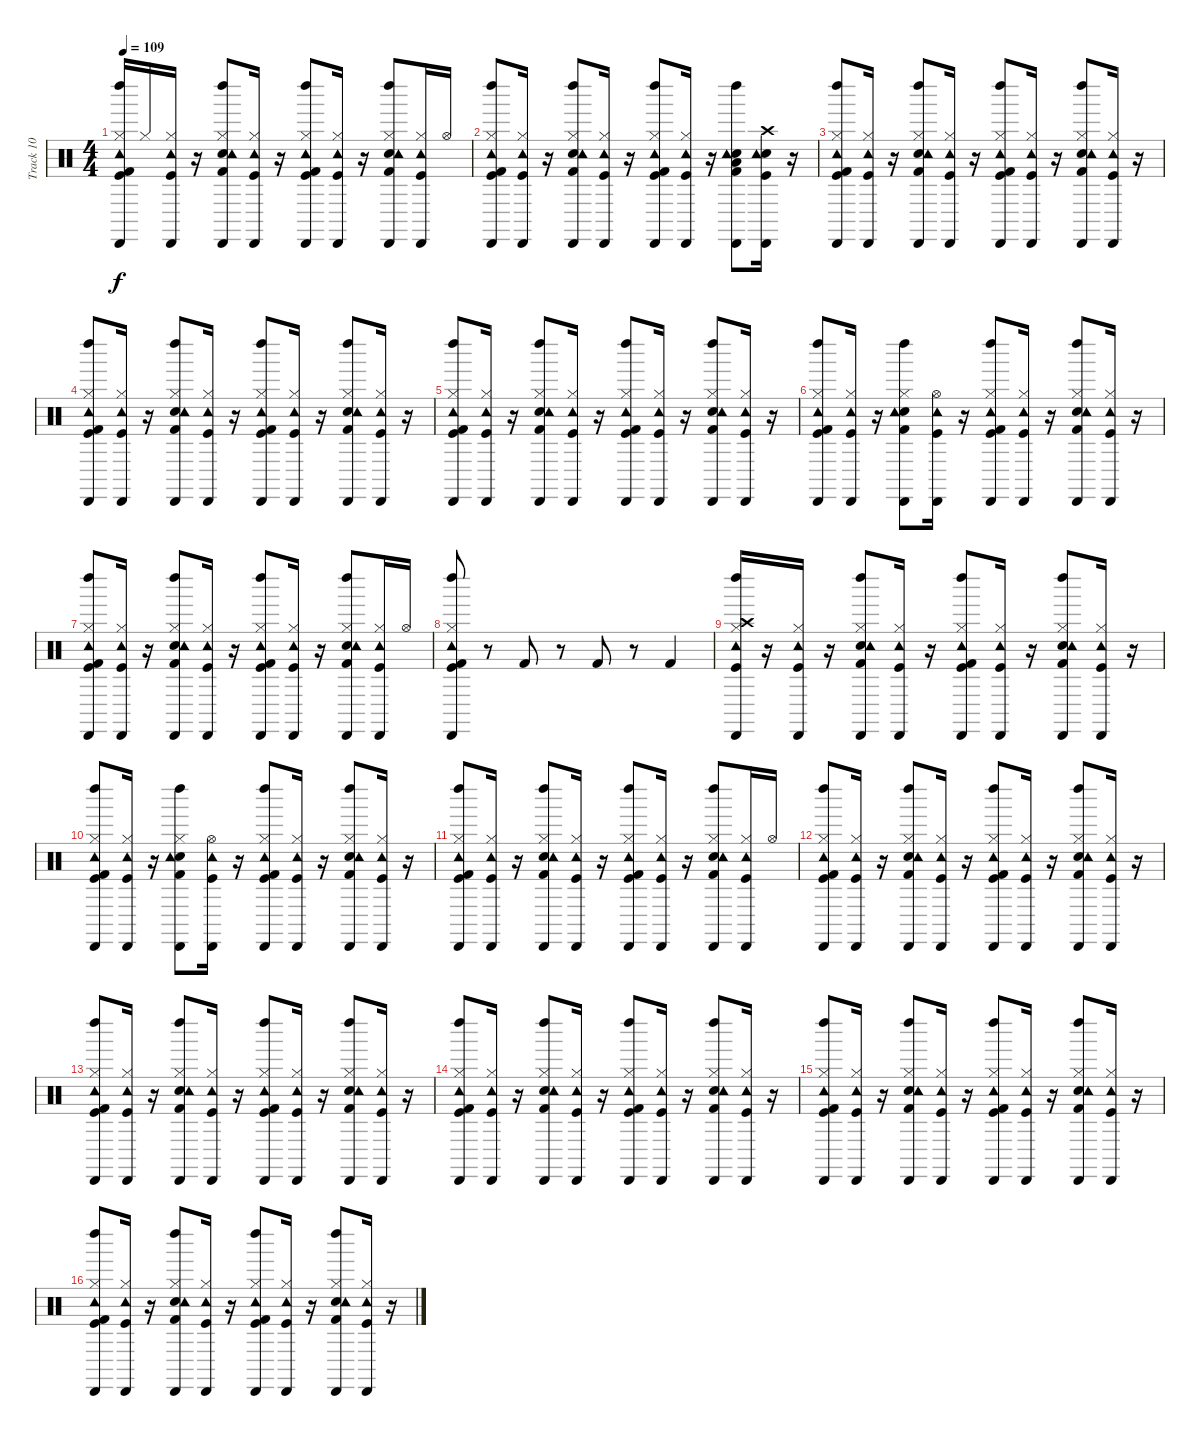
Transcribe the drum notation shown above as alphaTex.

\track ("Track 10" "Track 10") {instrument percussion}
\staff {score}
\articulation defaults
\ts (4 4)
\tempo 109
\clef neutral
\ks c
("Kick (hit)" "Hi-Hat (closed)" "Tambourine (hit)" "Left Maraca (hit)" "Cabasa (hit)" "Kick (hit) 2").16{dy f} "Hi-Hat (closed)".16 ("Kick (hit)" "Hi-Hat (closed)" "Tambourine (hit)" "Cabasa (hit)").16 r.16 ("Snare (hit) 2" "Hi-Hat (closed)" "Tambourine (hit)" "Left Maraca (hit)" "Cabasa (hit)" "Kick (hit) 2").8 ("Kick (hit)" "Hi-Hat (closed)" "Tambourine (hit)" "Cabasa (hit)").16 r.16 ("Kick (hit)" "Hi-Hat (closed)" "Tambourine (hit)" "Left Maraca (hit)" "Cabasa (hit)" "Kick (hit) 2").8 ("Kick (hit)" "Hi-Hat (closed)" "Tambourine (hit)" "Cabasa (hit)").16 r.16 ("Snare (hit) 2" "Hi-Hat (closed)" "Tambourine (hit)" "Left Maraca (hit)" "Cabasa (hit)" "Kick (hit) 2").8 ("Kick (hit)" "Hi-Hat (closed)" "Tambourine (hit)" "Cabasa (hit)").16 "Hi-Hat (open)".16 |
("Kick (hit)" "Hi-Hat (closed)" "Tambourine (hit)" "Left Maraca (hit)" "Cabasa (hit)" "Kick (hit) 2").8 ("Kick (hit)" "Hi-Hat (closed)" "Tambourine (hit)" "Cabasa (hit)").16 r.16 ("Snare (hit) 2" "Hi-Hat (closed)" "Tambourine (hit)" "Left Maraca (hit)" "Cabasa (hit)" "Kick (hit) 2").8 ("Kick (hit)" "Hi-Hat (closed)" "Tambourine (hit)" "Cabasa (hit)").16 r.16 ("Kick (hit)" "Hi-Hat (closed)" "Tambourine (hit)" "Left Maraca (hit)" "Cabasa (hit)" "Kick (hit) 2").8 ("Kick (hit)" "Hi-Hat (closed)" "Tambourine (hit)" "Cabasa (hit)").16 r.16 ("Snare (hit) 2" "Low Floor Tom (hit)" "Tambourine (hit)" "Left Maraca (hit)" "Cabasa (hit)" "Kick (hit) 2").8 ("Kick (hit)" "Snare (hit) 2" "Crash high (hit)" "Tambourine (hit)" "Cabasa (hit)").16 r.16 |
("Kick (hit)" "Hi-Hat (closed)" "Tambourine (hit)" "Left Maraca (hit)" "Cabasa (hit)" "Kick (hit) 2").8 ("Kick (hit)" "Hi-Hat (closed)" "Tambourine (hit)" "Cabasa (hit)").16 r.16 ("Snare (hit) 2" "Hi-Hat (closed)" "Tambourine (hit)" "Left Maraca (hit)" "Cabasa (hit)" "Kick (hit) 2").8 ("Kick (hit)" "Hi-Hat (closed)" "Tambourine (hit)" "Cabasa (hit)").16 r.16 ("Kick (hit)" "Hi-Hat (closed)" "Tambourine (hit)" "Left Maraca (hit)" "Cabasa (hit)" "Kick (hit) 2").8 ("Kick (hit)" "Hi-Hat (closed)" "Tambourine (hit)" "Cabasa (hit)").16 r.16 ("Snare (hit) 2" "Hi-Hat (closed)" "Tambourine (hit)" "Left Maraca (hit)" "Cabasa (hit)" "Kick (hit) 2").8 ("Kick (hit)" "Hi-Hat (closed)" "Tambourine (hit)" "Cabasa (hit)").16 r.16 |
("Kick (hit)" "Hi-Hat (closed)" "Tambourine (hit)" "Left Maraca (hit)" "Cabasa (hit)" "Kick (hit) 2").8 ("Kick (hit)" "Hi-Hat (closed)" "Tambourine (hit)" "Cabasa (hit)").16 r.16 ("Snare (hit) 2" "Hi-Hat (closed)" "Tambourine (hit)" "Left Maraca (hit)" "Cabasa (hit)" "Kick (hit) 2").8 ("Kick (hit)" "Hi-Hat (closed)" "Tambourine (hit)" "Cabasa (hit)").16 r.16 ("Kick (hit)" "Hi-Hat (closed)" "Tambourine (hit)" "Left Maraca (hit)" "Cabasa (hit)" "Kick (hit) 2").8 ("Kick (hit)" "Hi-Hat (closed)" "Tambourine (hit)" "Cabasa (hit)").16 r.16 ("Snare (hit) 2" "Hi-Hat (closed)" "Tambourine (hit)" "Left Maraca (hit)" "Cabasa (hit)" "Kick (hit) 2").8 ("Kick (hit)" "Hi-Hat (closed)" "Tambourine (hit)" "Cabasa (hit)").16 r.16 |
("Kick (hit)" "Hi-Hat (closed)" "Tambourine (hit)" "Left Maraca (hit)" "Cabasa (hit)" "Kick (hit) 2").8 ("Kick (hit)" "Hi-Hat (closed)" "Tambourine (hit)" "Cabasa (hit)").16 r.16 ("Snare (hit) 2" "Hi-Hat (closed)" "Tambourine (hit)" "Left Maraca (hit)" "Cabasa (hit)" "Kick (hit) 2").8 ("Kick (hit)" "Hi-Hat (closed)" "Tambourine (hit)" "Cabasa (hit)").16 r.16 ("Kick (hit)" "Hi-Hat (closed)" "Tambourine (hit)" "Left Maraca (hit)" "Cabasa (hit)" "Kick (hit) 2").8 ("Kick (hit)" "Hi-Hat (closed)" "Tambourine (hit)" "Cabasa (hit)").16 r.16 ("Snare (hit) 2" "Hi-Hat (closed)" "Tambourine (hit)" "Left Maraca (hit)" "Cabasa (hit)" "Kick (hit) 2").8 ("Kick (hit)" "Hi-Hat (closed)" "Tambourine (hit)" "Cabasa (hit)").16 r.16 |
("Kick (hit)" "Hi-Hat (closed)" "Tambourine (hit)" "Left Maraca (hit)" "Cabasa (hit)" "Kick (hit) 2").8 ("Kick (hit)" "Hi-Hat (closed)" "Tambourine (hit)" "Cabasa (hit)").16 r.16 ("Snare (hit) 2" "Hi-Hat (closed)" "Tambourine (hit)" "Left Maraca (hit)" "Cabasa (hit)" "Kick (hit) 2").8 ("Kick (hit)" "Hi-Hat (open)" "Tambourine (hit)" "Cabasa (hit)").16 r.16 ("Kick (hit)" "Hi-Hat (closed)" "Tambourine (hit)" "Left Maraca (hit)" "Cabasa (hit)" "Kick (hit) 2").8 ("Kick (hit)" "Hi-Hat (closed)" "Tambourine (hit)" "Cabasa (hit)").16 r.16 ("Snare (hit) 2" "Hi-Hat (closed)" "Tambourine (hit)" "Left Maraca (hit)" "Cabasa (hit)" "Kick (hit) 2").8 ("Kick (hit)" "Hi-Hat (closed)" "Tambourine (hit)" "Cabasa (hit)").16 r.16 |
("Kick (hit)" "Hi-Hat (closed)" "Tambourine (hit)" "Left Maraca (hit)" "Cabasa (hit)" "Kick (hit) 2").8 ("Kick (hit)" "Hi-Hat (closed)" "Tambourine (hit)" "Cabasa (hit)").16 r.16 ("Snare (hit) 2" "Hi-Hat (closed)" "Tambourine (hit)" "Left Maraca (hit)" "Cabasa (hit)" "Kick (hit) 2").8 ("Kick (hit)" "Hi-Hat (closed)" "Tambourine (hit)" "Cabasa (hit)").16 r.16 ("Kick (hit)" "Hi-Hat (closed)" "Tambourine (hit)" "Left Maraca (hit)" "Cabasa (hit)" "Kick (hit) 2").8 ("Kick (hit)" "Hi-Hat (closed)" "Tambourine (hit)" "Cabasa (hit)").16 r.16 ("Snare (hit) 2" "Hi-Hat (closed)" "Tambourine (hit)" "Left Maraca (hit)" "Cabasa (hit)" "Kick (hit) 2").8 ("Kick (hit)" "Hi-Hat (closed)" "Tambourine (hit)" "Cabasa (hit)").16 "Hi-Hat (open)".16 |
("Kick (hit)" "Hi-Hat (closed)" "Tambourine (hit)" "Left Maraca (hit)" "Cabasa (hit)" "Kick (hit) 2").8 r.8 "Kick (hit) 2".8 r.8 "Kick (hit) 2".8 r.8 "Kick (hit) 2".4 |
("Kick (hit)" "Hi-Hat (closed)" "Crash high (hit)" "Tambourine (hit)" "Left Maraca (hit)" "Cabasa (hit)").16 r.16 ("Kick (hit)" "Hi-Hat (closed)" "Tambourine (hit)" "Cabasa (hit)").16 r.16 ("Snare (hit) 2" "Hi-Hat (closed)" "Tambourine (hit)" "Left Maraca (hit)" "Cabasa (hit)" "Kick (hit) 2").8 ("Kick (hit)" "Hi-Hat (closed)" "Tambourine (hit)" "Cabasa (hit)").16 r.16 ("Kick (hit)" "Hi-Hat (closed)" "Tambourine (hit)" "Left Maraca (hit)" "Cabasa (hit)" "Kick (hit) 2").8 ("Kick (hit)" "Hi-Hat (closed)" "Tambourine (hit)" "Cabasa (hit)").16 r.16 ("Snare (hit) 2" "Hi-Hat (closed)" "Tambourine (hit)" "Left Maraca (hit)" "Cabasa (hit)" "Kick (hit) 2").8 ("Kick (hit)" "Hi-Hat (closed)" "Tambourine (hit)" "Cabasa (hit)").16 r.16 |
("Kick (hit)" "Hi-Hat (closed)" "Tambourine (hit)" "Left Maraca (hit)" "Cabasa (hit)" "Kick (hit) 2").8 ("Kick (hit)" "Hi-Hat (closed)" "Tambourine (hit)" "Cabasa (hit)").16 r.16 ("Snare (hit) 2" "Hi-Hat (closed)" "Tambourine (hit)" "Left Maraca (hit)" "Cabasa (hit)" "Kick (hit) 2").8 ("Kick (hit)" "Hi-Hat (open)" "Tambourine (hit)" "Cabasa (hit)").16 r.16 ("Kick (hit)" "Hi-Hat (closed)" "Tambourine (hit)" "Left Maraca (hit)" "Cabasa (hit)" "Kick (hit) 2").8 ("Kick (hit)" "Hi-Hat (closed)" "Tambourine (hit)" "Cabasa (hit)").16 r.16 ("Snare (hit) 2" "Hi-Hat (closed)" "Tambourine (hit)" "Left Maraca (hit)" "Cabasa (hit)" "Kick (hit) 2").8 ("Kick (hit)" "Hi-Hat (closed)" "Tambourine (hit)" "Cabasa (hit)").16 r.16 |
("Kick (hit)" "Hi-Hat (closed)" "Tambourine (hit)" "Left Maraca (hit)" "Cabasa (hit)" "Kick (hit) 2").8 ("Kick (hit)" "Hi-Hat (closed)" "Tambourine (hit)" "Cabasa (hit)").16 r.16 ("Snare (hit) 2" "Hi-Hat (closed)" "Tambourine (hit)" "Left Maraca (hit)" "Cabasa (hit)" "Kick (hit) 2").8 ("Kick (hit)" "Hi-Hat (closed)" "Tambourine (hit)" "Cabasa (hit)").16 r.16 ("Kick (hit)" "Hi-Hat (closed)" "Tambourine (hit)" "Left Maraca (hit)" "Cabasa (hit)" "Kick (hit) 2").8 ("Kick (hit)" "Hi-Hat (closed)" "Tambourine (hit)" "Cabasa (hit)").16 r.16 ("Snare (hit) 2" "Hi-Hat (closed)" "Tambourine (hit)" "Left Maraca (hit)" "Cabasa (hit)" "Kick (hit) 2").8 ("Kick (hit)" "Hi-Hat (closed)" "Tambourine (hit)" "Cabasa (hit)").16 "Hi-Hat (open)".16 |
("Kick (hit)" "Hi-Hat (closed)" "Tambourine (hit)" "Left Maraca (hit)" "Cabasa (hit)" "Kick (hit) 2").8 ("Kick (hit)" "Hi-Hat (closed)" "Tambourine (hit)" "Cabasa (hit)").16 r.16 ("Snare (hit) 2" "Hi-Hat (closed)" "Tambourine (hit)" "Left Maraca (hit)" "Cabasa (hit)" "Kick (hit) 2").8 ("Kick (hit)" "Hi-Hat (closed)" "Tambourine (hit)" "Cabasa (hit)").16 r.16 ("Kick (hit)" "Hi-Hat (closed)" "Tambourine (hit)" "Left Maraca (hit)" "Cabasa (hit)" "Kick (hit) 2").8 ("Kick (hit)" "Hi-Hat (closed)" "Tambourine (hit)" "Cabasa (hit)").16 r.16 ("Snare (hit) 2" "Hi-Hat (closed)" "Tambourine (hit)" "Left Maraca (hit)" "Cabasa (hit)" "Kick (hit) 2").8 ("Kick (hit)" "Hi-Hat (closed)" "Tambourine (hit)" "Cabasa (hit)").16 r.16 |
("Kick (hit)" "Hi-Hat (closed)" "Tambourine (hit)" "Left Maraca (hit)" "Cabasa (hit)" "Kick (hit) 2").8 ("Kick (hit)" "Hi-Hat (closed)" "Tambourine (hit)" "Cabasa (hit)").16 r.16 ("Snare (hit) 2" "Hi-Hat (closed)" "Tambourine (hit)" "Left Maraca (hit)" "Cabasa (hit)" "Kick (hit) 2").8 ("Kick (hit)" "Hi-Hat (closed)" "Tambourine (hit)" "Cabasa (hit)").16 r.16 ("Kick (hit)" "Hi-Hat (closed)" "Tambourine (hit)" "Left Maraca (hit)" "Cabasa (hit)" "Kick (hit) 2").8 ("Kick (hit)" "Hi-Hat (closed)" "Tambourine (hit)" "Cabasa (hit)").16 r.16 ("Snare (hit) 2" "Hi-Hat (closed)" "Tambourine (hit)" "Left Maraca (hit)" "Cabasa (hit)" "Kick (hit) 2").8 ("Kick (hit)" "Hi-Hat (closed)" "Tambourine (hit)" "Cabasa (hit)").16 r.16 |
("Kick (hit)" "Hi-Hat (closed)" "Tambourine (hit)" "Left Maraca (hit)" "Cabasa (hit)" "Kick (hit) 2").8 ("Kick (hit)" "Hi-Hat (closed)" "Tambourine (hit)" "Cabasa (hit)").16 r.16 ("Snare (hit) 2" "Hi-Hat (closed)" "Tambourine (hit)" "Left Maraca (hit)" "Cabasa (hit)" "Kick (hit) 2").8 ("Kick (hit)" "Hi-Hat (closed)" "Tambourine (hit)" "Cabasa (hit)").16 r.16 ("Kick (hit)" "Hi-Hat (closed)" "Tambourine (hit)" "Left Maraca (hit)" "Cabasa (hit)" "Kick (hit) 2").8 ("Kick (hit)" "Hi-Hat (closed)" "Tambourine (hit)" "Cabasa (hit)").16 r.16 ("Snare (hit) 2" "Hi-Hat (closed)" "Tambourine (hit)" "Left Maraca (hit)" "Cabasa (hit)" "Kick (hit) 2").8 ("Kick (hit)" "Hi-Hat (closed)" "Tambourine (hit)" "Cabasa (hit)").16 r.16 |
("Kick (hit)" "Hi-Hat (closed)" "Tambourine (hit)" "Left Maraca (hit)" "Cabasa (hit)" "Kick (hit) 2").8 ("Kick (hit)" "Hi-Hat (closed)" "Tambourine (hit)" "Cabasa (hit)").16 r.16 ("Snare (hit) 2" "Hi-Hat (closed)" "Tambourine (hit)" "Left Maraca (hit)" "Cabasa (hit)" "Kick (hit) 2").8 ("Kick (hit)" "Hi-Hat (closed)" "Tambourine (hit)" "Cabasa (hit)").16 r.16 ("Kick (hit)" "Hi-Hat (closed)" "Tambourine (hit)" "Left Maraca (hit)" "Cabasa (hit)" "Kick (hit) 2").8 ("Kick (hit)" "Hi-Hat (closed)" "Tambourine (hit)" "Cabasa (hit)").16 r.16 ("Snare (hit) 2" "Hi-Hat (closed)" "Tambourine (hit)" "Left Maraca (hit)" "Cabasa (hit)" "Kick (hit) 2").8 ("Kick (hit)" "Hi-Hat (closed)" "Tambourine (hit)" "Cabasa (hit)").16 r.16 |
("Kick (hit)" "Hi-Hat (closed)" "Tambourine (hit)" "Left Maraca (hit)" "Cabasa (hit)" "Kick (hit) 2").8 ("Kick (hit)" "Hi-Hat (closed)" "Tambourine (hit)" "Cabasa (hit)").16 r.16 ("Snare (hit) 2" "Hi-Hat (closed)" "Tambourine (hit)" "Left Maraca (hit)" "Cabasa (hit)" "Kick (hit) 2").8 ("Kick (hit)" "Hi-Hat (closed)" "Tambourine (hit)" "Cabasa (hit)").16 r.16 ("Kick (hit)" "Hi-Hat (closed)" "Tambourine (hit)" "Left Maraca (hit)" "Cabasa (hit)" "Kick (hit) 2").8 ("Kick (hit)" "Hi-Hat (closed)" "Tambourine (hit)" "Cabasa (hit)").16 r.16 ("Snare (hit) 2" "Hi-Hat (closed)" "Tambourine (hit)" "Left Maraca (hit)" "Cabasa (hit)" "Kick (hit) 2").8 ("Kick (hit)" "Hi-Hat (closed)" "Tambourine (hit)" "Cabasa (hit)").16 r.16
